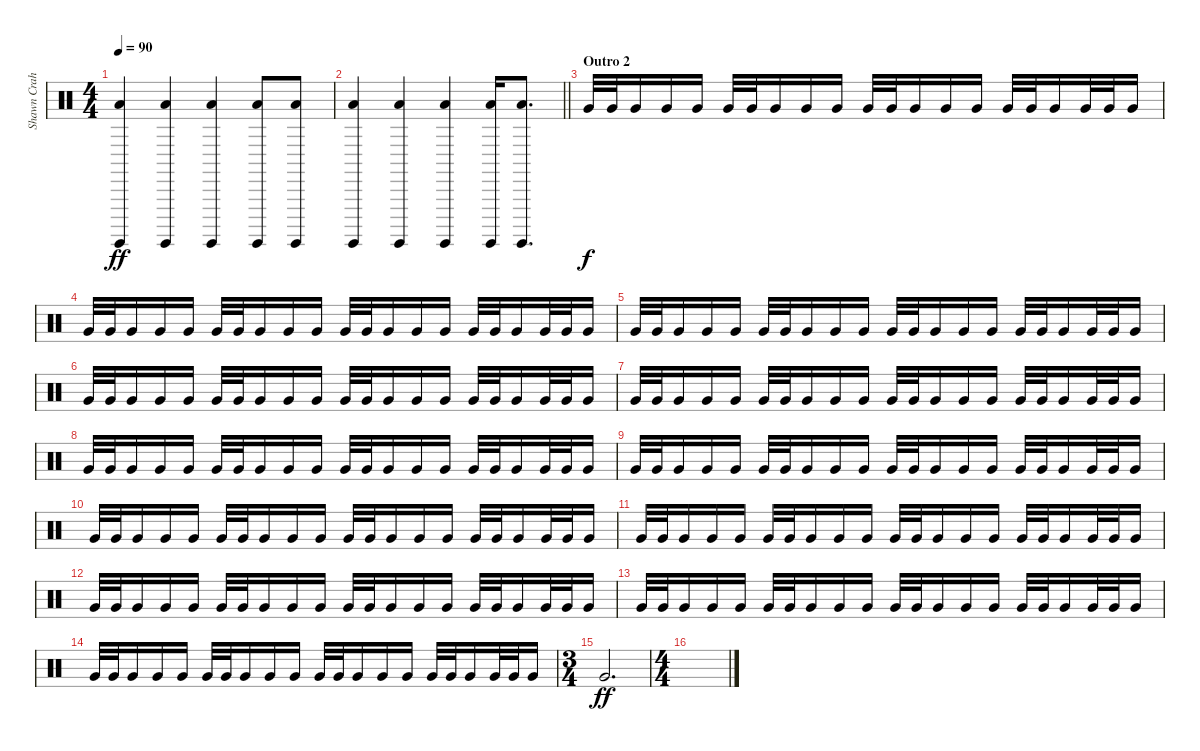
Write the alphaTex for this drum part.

\track ("Shawn Crahan" "Shawn Crah") {instrument percussion}
\staff {score}
\articulation defaults
\ts (4 4)
\tempo 90
\clef neutral
\ks c
("Surdo (hit)" "Low Floor Tom (hit)").4{dy ff} ("Surdo (hit)" "Low Floor Tom (hit)").4 ("Surdo (hit)" "Low Floor Tom (hit)").4 ("Surdo (hit)" "Low Floor Tom (hit)").8 ("Surdo (hit)" "Low Floor Tom (hit)").8 |
\barLineRight lightlight
("Surdo (hit)" "Low Floor Tom (hit)").4 ("Surdo (hit)" "Low Floor Tom (hit)").4 ("Surdo (hit)" "Low Floor Tom (hit)").4 ("Surdo (hit)" "Low Floor Tom (hit)").16 ("Surdo (hit)" "Low Floor Tom (hit)").8{d} |
\section ("" "Outro 2")
"Very Low Tom (hit)".32{dy f} "Very Low Tom (hit)".32 "Very Low Tom (hit)".16 "Very Low Tom (hit)".16 "Very Low Tom (hit)".16 "Very Low Tom (hit)".32 "Very Low Tom (hit)".32 "Very Low Tom (hit)".16 "Very Low Tom (hit)".16 "Very Low Tom (hit)".16 "Very Low Tom (hit)".32 "Very Low Tom (hit)".32 "Very Low Tom (hit)".16 "Very Low Tom (hit)".16 "Very Low Tom (hit)".16 "Very Low Tom (hit)".32 "Very Low Tom (hit)".32 "Very Low Tom (hit)".16 "Very Low Tom (hit)".32 "Very Low Tom (hit)".32 "Very Low Tom (hit)".16 |
"Very Low Tom (hit)".32 "Very Low Tom (hit)".32 "Very Low Tom (hit)".16 "Very Low Tom (hit)".16 "Very Low Tom (hit)".16 "Very Low Tom (hit)".32 "Very Low Tom (hit)".32 "Very Low Tom (hit)".16 "Very Low Tom (hit)".16 "Very Low Tom (hit)".16 "Very Low Tom (hit)".32 "Very Low Tom (hit)".32 "Very Low Tom (hit)".16 "Very Low Tom (hit)".16 "Very Low Tom (hit)".16 "Very Low Tom (hit)".32 "Very Low Tom (hit)".32 "Very Low Tom (hit)".16 "Very Low Tom (hit)".32 "Very Low Tom (hit)".32 "Very Low Tom (hit)".16 |
"Very Low Tom (hit)".32 "Very Low Tom (hit)".32 "Very Low Tom (hit)".16 "Very Low Tom (hit)".16 "Very Low Tom (hit)".16 "Very Low Tom (hit)".32 "Very Low Tom (hit)".32 "Very Low Tom (hit)".16 "Very Low Tom (hit)".16 "Very Low Tom (hit)".16 "Very Low Tom (hit)".32 "Very Low Tom (hit)".32 "Very Low Tom (hit)".16 "Very Low Tom (hit)".16 "Very Low Tom (hit)".16 "Very Low Tom (hit)".32 "Very Low Tom (hit)".32 "Very Low Tom (hit)".16 "Very Low Tom (hit)".32 "Very Low Tom (hit)".32 "Very Low Tom (hit)".16 |
"Very Low Tom (hit)".32 "Very Low Tom (hit)".32 "Very Low Tom (hit)".16 "Very Low Tom (hit)".16 "Very Low Tom (hit)".16 "Very Low Tom (hit)".32 "Very Low Tom (hit)".32 "Very Low Tom (hit)".16 "Very Low Tom (hit)".16 "Very Low Tom (hit)".16 "Very Low Tom (hit)".32 "Very Low Tom (hit)".32 "Very Low Tom (hit)".16 "Very Low Tom (hit)".16 "Very Low Tom (hit)".16 "Very Low Tom (hit)".32 "Very Low Tom (hit)".32 "Very Low Tom (hit)".16 "Very Low Tom (hit)".32 "Very Low Tom (hit)".32 "Very Low Tom (hit)".16 |
"Very Low Tom (hit)".32 "Very Low Tom (hit)".32 "Very Low Tom (hit)".16 "Very Low Tom (hit)".16 "Very Low Tom (hit)".16 "Very Low Tom (hit)".32 "Very Low Tom (hit)".32 "Very Low Tom (hit)".16 "Very Low Tom (hit)".16 "Very Low Tom (hit)".16 "Very Low Tom (hit)".32 "Very Low Tom (hit)".32 "Very Low Tom (hit)".16 "Very Low Tom (hit)".16 "Very Low Tom (hit)".16 "Very Low Tom (hit)".32 "Very Low Tom (hit)".32 "Very Low Tom (hit)".16 "Very Low Tom (hit)".32 "Very Low Tom (hit)".32 "Very Low Tom (hit)".16 |
"Very Low Tom (hit)".32 "Very Low Tom (hit)".32 "Very Low Tom (hit)".16 "Very Low Tom (hit)".16 "Very Low Tom (hit)".16 "Very Low Tom (hit)".32 "Very Low Tom (hit)".32 "Very Low Tom (hit)".16 "Very Low Tom (hit)".16 "Very Low Tom (hit)".16 "Very Low Tom (hit)".32 "Very Low Tom (hit)".32 "Very Low Tom (hit)".16 "Very Low Tom (hit)".16 "Very Low Tom (hit)".16 "Very Low Tom (hit)".32 "Very Low Tom (hit)".32 "Very Low Tom (hit)".16 "Very Low Tom (hit)".32 "Very Low Tom (hit)".32 "Very Low Tom (hit)".16 |
"Very Low Tom (hit)".32 "Very Low Tom (hit)".32 "Very Low Tom (hit)".16 "Very Low Tom (hit)".16 "Very Low Tom (hit)".16 "Very Low Tom (hit)".32 "Very Low Tom (hit)".32 "Very Low Tom (hit)".16 "Very Low Tom (hit)".16 "Very Low Tom (hit)".16 "Very Low Tom (hit)".32 "Very Low Tom (hit)".32 "Very Low Tom (hit)".16 "Very Low Tom (hit)".16 "Very Low Tom (hit)".16 "Very Low Tom (hit)".32 "Very Low Tom (hit)".32 "Very Low Tom (hit)".16 "Very Low Tom (hit)".32 "Very Low Tom (hit)".32 "Very Low Tom (hit)".16 |
"Very Low Tom (hit)".32 "Very Low Tom (hit)".32 "Very Low Tom (hit)".16 "Very Low Tom (hit)".16 "Very Low Tom (hit)".16 "Very Low Tom (hit)".32 "Very Low Tom (hit)".32 "Very Low Tom (hit)".16 "Very Low Tom (hit)".16 "Very Low Tom (hit)".16 "Very Low Tom (hit)".32 "Very Low Tom (hit)".32 "Very Low Tom (hit)".16 "Very Low Tom (hit)".16 "Very Low Tom (hit)".16 "Very Low Tom (hit)".32 "Very Low Tom (hit)".32 "Very Low Tom (hit)".16 "Very Low Tom (hit)".32 "Very Low Tom (hit)".32 "Very Low Tom (hit)".16 |
"Very Low Tom (hit)".32 "Very Low Tom (hit)".32 "Very Low Tom (hit)".16 "Very Low Tom (hit)".16 "Very Low Tom (hit)".16 "Very Low Tom (hit)".32 "Very Low Tom (hit)".32 "Very Low Tom (hit)".16 "Very Low Tom (hit)".16 "Very Low Tom (hit)".16 "Very Low Tom (hit)".32 "Very Low Tom (hit)".32 "Very Low Tom (hit)".16 "Very Low Tom (hit)".16 "Very Low Tom (hit)".16 "Very Low Tom (hit)".32 "Very Low Tom (hit)".32 "Very Low Tom (hit)".16 "Very Low Tom (hit)".32 "Very Low Tom (hit)".32 "Very Low Tom (hit)".16 |
"Very Low Tom (hit)".32 "Very Low Tom (hit)".32 "Very Low Tom (hit)".16 "Very Low Tom (hit)".16 "Very Low Tom (hit)".16 "Very Low Tom (hit)".32 "Very Low Tom (hit)".32 "Very Low Tom (hit)".16 "Very Low Tom (hit)".16 "Very Low Tom (hit)".16 "Very Low Tom (hit)".32 "Very Low Tom (hit)".32 "Very Low Tom (hit)".16 "Very Low Tom (hit)".16 "Very Low Tom (hit)".16 "Very Low Tom (hit)".32 "Very Low Tom (hit)".32 "Very Low Tom (hit)".16 "Very Low Tom (hit)".32 "Very Low Tom (hit)".32 "Very Low Tom (hit)".16 |
"Very Low Tom (hit)".32 "Very Low Tom (hit)".32 "Very Low Tom (hit)".16 "Very Low Tom (hit)".16 "Very Low Tom (hit)".16 "Very Low Tom (hit)".32 "Very Low Tom (hit)".32 "Very Low Tom (hit)".16 "Very Low Tom (hit)".16 "Very Low Tom (hit)".16 "Very Low Tom (hit)".32 "Very Low Tom (hit)".32 "Very Low Tom (hit)".16 "Very Low Tom (hit)".16 "Very Low Tom (hit)".16 "Very Low Tom (hit)".32 "Very Low Tom (hit)".32 "Very Low Tom (hit)".16 "Very Low Tom (hit)".32 "Very Low Tom (hit)".32 "Very Low Tom (hit)".16 |
"Very Low Tom (hit)".32 "Very Low Tom (hit)".32 "Very Low Tom (hit)".16 "Very Low Tom (hit)".16 "Very Low Tom (hit)".16 "Very Low Tom (hit)".32 "Very Low Tom (hit)".32 "Very Low Tom (hit)".16 "Very Low Tom (hit)".16 "Very Low Tom (hit)".16 "Very Low Tom (hit)".32 "Very Low Tom (hit)".32 "Very Low Tom (hit)".16 "Very Low Tom (hit)".16 "Very Low Tom (hit)".16 "Very Low Tom (hit)".32 "Very Low Tom (hit)".32 "Very Low Tom (hit)".16 "Very Low Tom (hit)".32 "Very Low Tom (hit)".32 "Very Low Tom (hit)".16 |
\ts (3 4)
"Very Low Tom (hit)".2{d dy ff} |
\ts (4 4)
